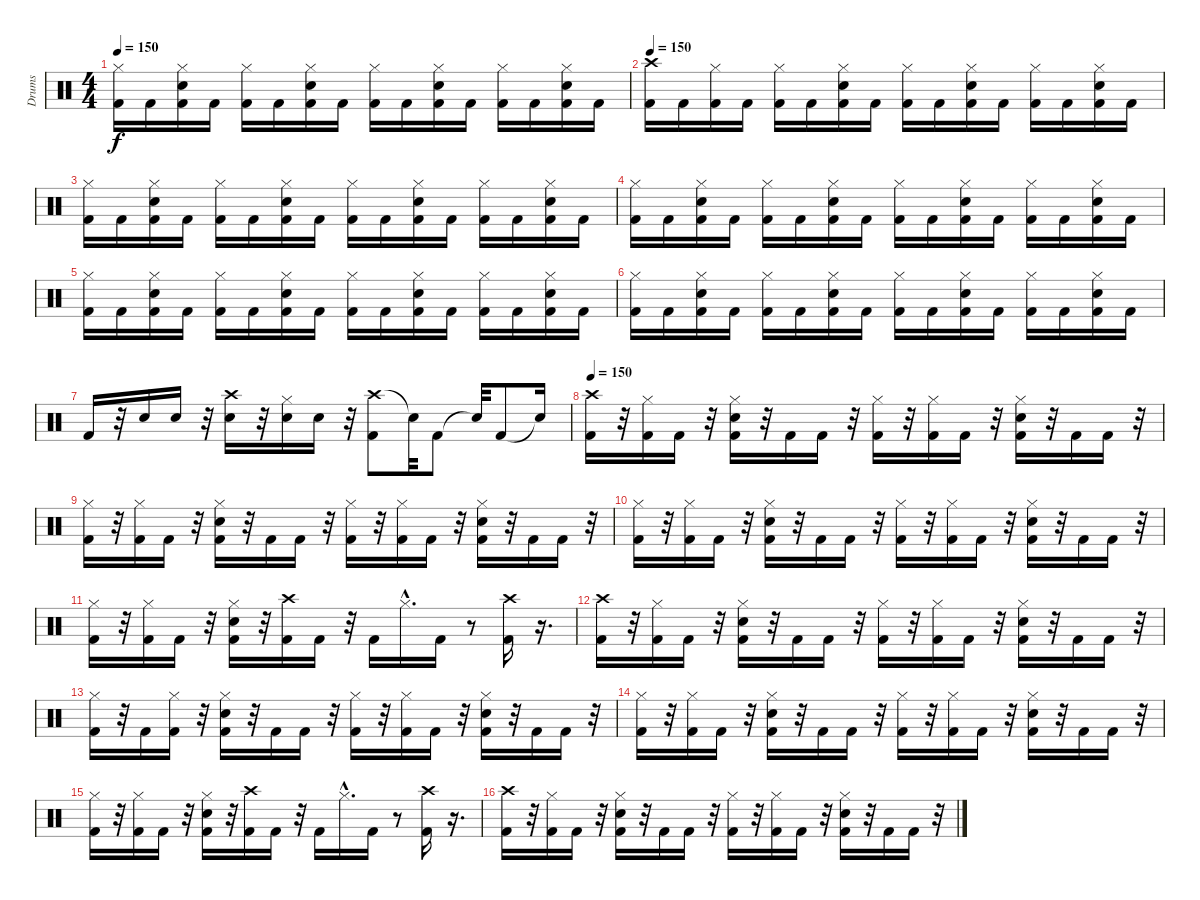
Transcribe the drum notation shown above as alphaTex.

\track ("Drums" "Drums") {instrument percussion}
\staff {score}
\articulation defaults
\ts (4 4)
\tempo 150
\clef neutral
\ks c
("Hi-Hat (closed)" "Kick (hit) 2").16{dy f} "Kick (hit) 2".16 ("Hi-Hat (closed)" "Electric Snare (hit)" "Kick (hit) 2").16 "Kick (hit) 2".16 ("Hi-Hat (closed)" "Kick (hit) 2").16 "Kick (hit) 2".16 ("Hi-Hat (closed)" "Electric Snare (hit)" "Kick (hit) 2").16 "Kick (hit) 2".16 ("Hi-Hat (closed)" "Kick (hit) 2").16 "Kick (hit) 2".16 ("Hi-Hat (closed)" "Electric Snare (hit)" "Kick (hit) 2").16 "Kick (hit) 2".16 ("Hi-Hat (closed)" "Kick (hit) 2").16 "Kick (hit) 2".16 ("Hi-Hat (closed)" "Electric Snare (hit)" "Kick (hit) 2").16 "Kick (hit) 2".16 |
\tempo 150
("Crash high (hit)" "Kick (hit) 2").16 "Kick (hit) 2".16 ("Hi-Hat (closed)" "Kick (hit) 2").16 "Kick (hit) 2".16 ("Hi-Hat (closed)" "Kick (hit) 2").16 "Kick (hit) 2".16 ("Hi-Hat (closed)" "Electric Snare (hit)" "Kick (hit) 2").16 "Kick (hit) 2".16 ("Hi-Hat (closed)" "Kick (hit) 2").16 "Kick (hit) 2".16 ("Hi-Hat (closed)" "Electric Snare (hit)" "Kick (hit) 2").16 "Kick (hit) 2".16 ("Hi-Hat (closed)" "Kick (hit) 2").16 "Kick (hit) 2".16 ("Hi-Hat (closed)" "Electric Snare (hit)" "Kick (hit) 2").16 "Kick (hit) 2".16 |
("Hi-Hat (closed)" "Kick (hit) 2").16 "Kick (hit) 2".16 ("Hi-Hat (closed)" "Electric Snare (hit)" "Kick (hit) 2").16 "Kick (hit) 2".16 ("Hi-Hat (closed)" "Kick (hit) 2").16 "Kick (hit) 2".16 ("Hi-Hat (closed)" "Electric Snare (hit)" "Kick (hit) 2").16 "Kick (hit) 2".16 ("Hi-Hat (closed)" "Kick (hit) 2").16 "Kick (hit) 2".16 ("Hi-Hat (closed)" "Electric Snare (hit)" "Kick (hit) 2").16 "Kick (hit) 2".16 ("Hi-Hat (closed)" "Kick (hit) 2").16 "Kick (hit) 2".16 ("Hi-Hat (closed)" "Electric Snare (hit)" "Kick (hit) 2").16 "Kick (hit) 2".16 |
("Hi-Hat (closed)" "Kick (hit) 2").16 "Kick (hit) 2".16 ("Hi-Hat (closed)" "Electric Snare (hit)" "Kick (hit) 2").16 "Kick (hit) 2".16 ("Hi-Hat (closed)" "Kick (hit) 2").16 "Kick (hit) 2".16 ("Hi-Hat (closed)" "Electric Snare (hit)" "Kick (hit) 2").16 "Kick (hit) 2".16 ("Hi-Hat (closed)" "Kick (hit) 2").16 "Kick (hit) 2".16 ("Hi-Hat (closed)" "Electric Snare (hit)" "Kick (hit) 2").16 "Kick (hit) 2".16 ("Hi-Hat (closed)" "Kick (hit) 2").16 "Kick (hit) 2".16 ("Hi-Hat (closed)" "Electric Snare (hit)" "Kick (hit) 2").16 "Kick (hit) 2".16 |
("Hi-Hat (closed)" "Kick (hit) 2").16 "Kick (hit) 2".16 ("Hi-Hat (closed)" "Electric Snare (hit)" "Kick (hit) 2").16 "Kick (hit) 2".16 ("Hi-Hat (closed)" "Kick (hit) 2").16 "Kick (hit) 2".16 ("Hi-Hat (closed)" "Electric Snare (hit)" "Kick (hit) 2").16 "Kick (hit) 2".16 ("Hi-Hat (closed)" "Kick (hit) 2").16 "Kick (hit) 2".16 ("Hi-Hat (closed)" "Electric Snare (hit)" "Kick (hit) 2").16 "Kick (hit) 2".16 ("Hi-Hat (closed)" "Kick (hit) 2").16 "Kick (hit) 2".16 ("Hi-Hat (closed)" "Electric Snare (hit)" "Kick (hit) 2").16 "Kick (hit) 2".16 |
("Hi-Hat (closed)" "Kick (hit) 2").16 "Kick (hit) 2".16 ("Hi-Hat (closed)" "Electric Snare (hit)" "Kick (hit) 2").16 "Kick (hit) 2".16 ("Hi-Hat (closed)" "Kick (hit) 2").16 "Kick (hit) 2".16 ("Hi-Hat (closed)" "Electric Snare (hit)" "Kick (hit) 2").16 "Kick (hit) 2".16 ("Hi-Hat (closed)" "Kick (hit) 2").16 "Kick (hit) 2".16 ("Hi-Hat (closed)" "Electric Snare (hit)" "Kick (hit) 2").16 "Kick (hit) 2".16 ("Hi-Hat (closed)" "Kick (hit) 2").16 "Kick (hit) 2".16 ("Hi-Hat (closed)" "Electric Snare (hit)" "Kick (hit) 2").16 "Kick (hit) 2".16 |
"Kick (hit) 2".16 r.32 "Electric Snare (hit)".16 "Electric Snare (hit)".16 r.32 ("Crash high (hit)" "Electric Snare (hit)").16 r.32 ("Hi-Hat (closed)" "Electric Snare (hit)").16 "Electric Snare (hit)".16 r.32 ("Crash high (hit)" "Kick (hit) 2").8 "Snare (hit)"{t}.32 "Kick (hit) 2".8 "Snare (hit)"{t}.32 "Kick (hit) 2".8 "Snare (hit)"{t}.16 |
\tempo 150
("Crash high (hit)" "Kick (hit) 2").16 r.32 ("Hi-Hat (closed)" "Kick (hit) 2").16 "Kick (hit) 2".16 r.32 ("Hi-Hat (closed)" "Electric Snare (hit)" "Kick (hit) 2").16 r.32 "Kick (hit) 2".16 "Kick (hit) 2".16 r.32 ("Hi-Hat (closed)" "Kick (hit) 2").16 r.32 ("Hi-Hat (closed)" "Kick (hit) 2").16 "Kick (hit) 2".16 r.32 ("Hi-Hat (closed)" "Electric Snare (hit)" "Kick (hit) 2").16 r.32 "Kick (hit) 2".16 "Kick (hit) 2".16 r.32 |
("Hi-Hat (closed)" "Kick (hit) 2").16 r.32 ("Hi-Hat (closed)" "Kick (hit) 2").16 "Kick (hit) 2".16 r.32 ("Hi-Hat (closed)" "Electric Snare (hit)" "Kick (hit) 2").16 r.32 "Kick (hit) 2".16 "Kick (hit) 2".16 r.32 ("Hi-Hat (closed)" "Kick (hit) 2").16 r.32 ("Hi-Hat (closed)" "Kick (hit) 2").16 "Kick (hit) 2".16 r.32 ("Hi-Hat (closed)" "Electric Snare (hit)" "Kick (hit) 2").16 r.32 "Kick (hit) 2".16 "Kick (hit) 2".16 r.32 |
("Hi-Hat (closed)" "Kick (hit) 2").16 r.32 ("Hi-Hat (closed)" "Kick (hit) 2").16 "Kick (hit) 2".16 r.32 ("Hi-Hat (closed)" "Electric Snare (hit)" "Kick (hit) 2").16 r.32 "Kick (hit) 2".16 "Kick (hit) 2".16 r.32 ("Hi-Hat (closed)" "Kick (hit) 2").16 r.32 ("Hi-Hat (closed)" "Kick (hit) 2").16 "Kick (hit) 2".16 r.32 ("Hi-Hat (closed)" "Electric Snare (hit)" "Kick (hit) 2").16 r.32 "Kick (hit) 2".16 "Kick (hit) 2".16 r.32 |
("Hi-Hat (closed)" "Kick (hit) 2").16 r.32 ("Hi-Hat (closed)" "Kick (hit) 2").16 "Kick (hit) 2".16 r.32 ("Hi-Hat (closed)" "Electric Snare (hit)" "Kick (hit) 2").16 r.32 ("Crash high (hit)" "Kick (hit) 2").16 "Kick (hit) 2".16 r.32 "Kick (hit) 2".16 "Hi-Hat (closed)"{hac}.16{d} "Kick (hit) 2".16 r.8 ("Crash high (hit)" "Kick (hit) 2").16 r.16{d} |
("Crash high (hit)" "Kick (hit) 2").16 r.32 ("Hi-Hat (closed)" "Kick (hit) 2").16 "Kick (hit) 2".16 r.32 ("Hi-Hat (closed)" "Electric Snare (hit)" "Kick (hit) 2").16 r.32 "Kick (hit) 2".16 "Kick (hit) 2".16 r.32 ("Hi-Hat (closed)" "Kick (hit) 2").16 r.32 ("Hi-Hat (closed)" "Kick (hit) 2").16 "Kick (hit) 2".16 r.32 ("Hi-Hat (closed)" "Electric Snare (hit)" "Kick (hit) 2").16 r.32 "Kick (hit) 2".16 "Kick (hit) 2".16 r.32 |
("Hi-Hat (closed)" "Kick (hit) 2").16 r.32 "Kick (hit) 2".16 ("Hi-Hat (closed)" "Kick (hit) 2").16 r.32 ("Hi-Hat (closed)" "Electric Snare (hit)" "Kick (hit) 2").16 r.32 "Kick (hit) 2".16 "Kick (hit) 2".16 r.32 ("Hi-Hat (closed)" "Kick (hit) 2").16 r.32 ("Hi-Hat (closed)" "Kick (hit) 2").16 "Kick (hit) 2".16 r.32 ("Hi-Hat (closed)" "Electric Snare (hit)" "Kick (hit) 2").16 r.32 "Kick (hit) 2".16 "Kick (hit) 2".16 r.32 |
("Hi-Hat (closed)" "Kick (hit) 2").16 r.32 ("Hi-Hat (closed)" "Kick (hit) 2").16 "Kick (hit) 2".16 r.32 ("Hi-Hat (closed)" "Electric Snare (hit)" "Kick (hit) 2").16 r.32 "Kick (hit) 2".16 "Kick (hit) 2".16 r.32 ("Hi-Hat (closed)" "Kick (hit) 2").16 r.32 ("Hi-Hat (closed)" "Kick (hit) 2").16 "Kick (hit) 2".16 r.32 ("Hi-Hat (closed)" "Electric Snare (hit)" "Kick (hit) 2").16 r.32 "Kick (hit) 2".16 "Kick (hit) 2".16 r.32 |
("Hi-Hat (closed)" "Kick (hit) 2").16 r.32 ("Hi-Hat (closed)" "Kick (hit) 2").16 "Kick (hit) 2".16 r.32 ("Hi-Hat (closed)" "Electric Snare (hit)" "Kick (hit) 2").16 r.32 ("Crash high (hit)" "Kick (hit) 2").16 "Kick (hit) 2".16 r.32 "Kick (hit) 2".16 "Hi-Hat (closed)"{hac}.16{d} "Kick (hit) 2".16 r.8 ("Crash high (hit)" "Kick (hit) 2").16 r.16{d} |
("Crash high (hit)" "Kick (hit) 2").16 r.32 ("Hi-Hat (closed)" "Kick (hit) 2").16 "Kick (hit) 2".16 r.32 ("Hi-Hat (closed)" "Electric Snare (hit)" "Kick (hit) 2").16 r.32 "Kick (hit) 2".16 "Kick (hit) 2".16 r.32 ("Hi-Hat (closed)" "Kick (hit) 2").16 r.32 ("Hi-Hat (closed)" "Kick (hit) 2").16 "Kick (hit) 2".16 r.32 ("Hi-Hat (closed)" "Electric Snare (hit)" "Kick (hit) 2").16 r.32 "Kick (hit) 2".16 "Kick (hit) 2".16 r.32
